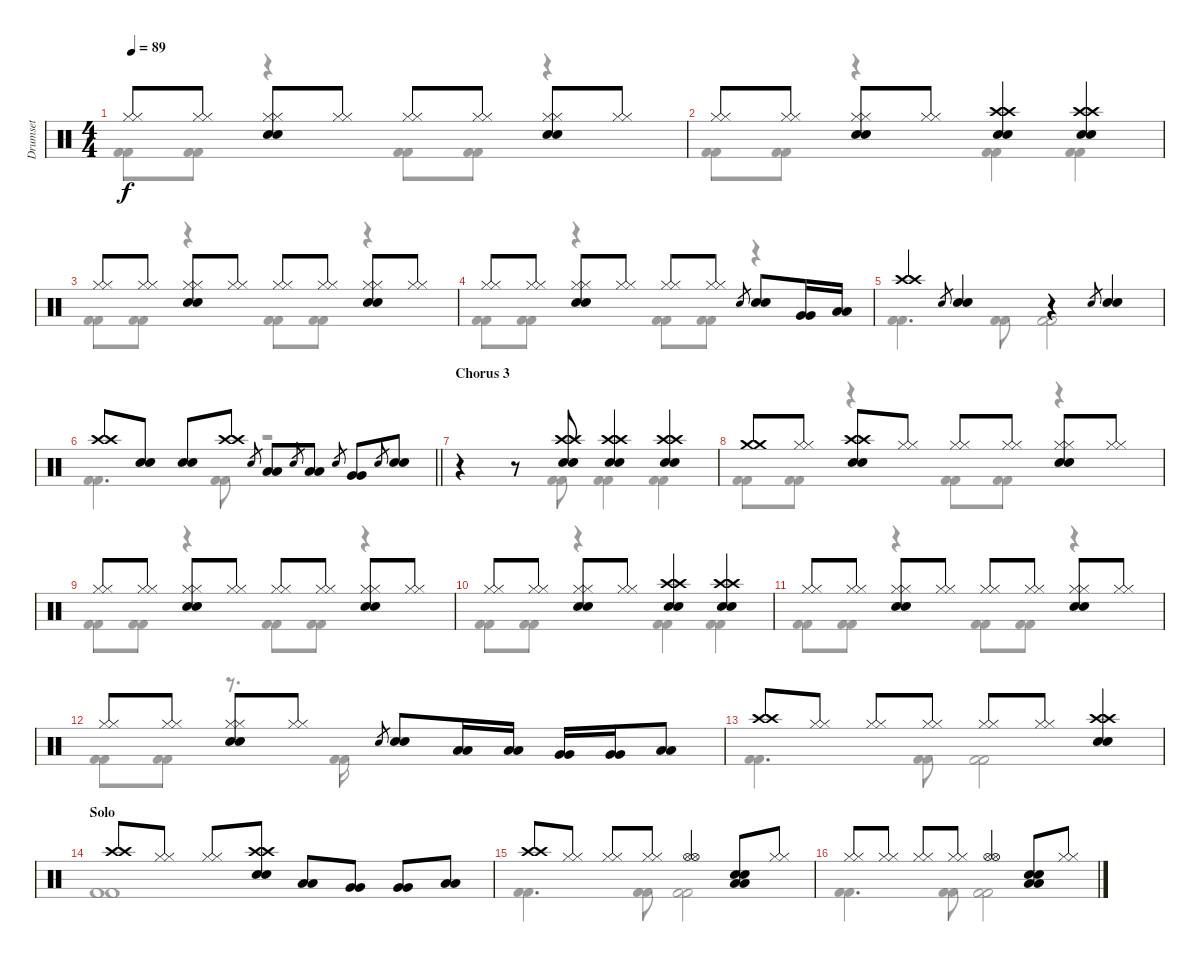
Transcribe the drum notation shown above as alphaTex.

\track ("Drumset" "Drumset") {instrument percussion}
\staff {score}
\articulation defaults
\voice
\ts (4 4)
\tempo 89
\clef neutral
\ks c
("Hi-Hat (closed)" "Hi-Hat (closed)").8{dy f} ("Hi-Hat (closed)" "Hi-Hat (closed)").8 ("Electric Snare (hit)" "Electric Snare (hit)" "Hi-Hat (closed)" "Hi-Hat (closed)").8 ("Hi-Hat (closed)" "Hi-Hat (closed)").8 ("Hi-Hat (closed)" "Hi-Hat (closed)").8 ("Hi-Hat (closed)" "Hi-Hat (closed)").8 ("Electric Snare (hit)" "Electric Snare (hit)" "Hi-Hat (closed)" "Hi-Hat (closed)").8 ("Hi-Hat (closed)" "Hi-Hat (closed)").8 |
("Hi-Hat (closed)" "Hi-Hat (closed)").8 ("Hi-Hat (closed)" "Hi-Hat (closed)").8 ("Electric Snare (hit)" "Electric Snare (hit)" "Hi-Hat (closed)" "Hi-Hat (closed)").8 ("Hi-Hat (closed)" "Hi-Hat (closed)").8 ("Electric Snare (hit)" "Electric Snare (hit)" "Crash high (hit)" "Crash high (hit)").4 ("Electric Snare (hit)" "Electric Snare (hit)" "Crash high (hit)" "Crash high (hit)").4 |
("Hi-Hat (closed)" "Hi-Hat (closed)").8 ("Hi-Hat (closed)" "Hi-Hat (closed)").8 ("Electric Snare (hit)" "Electric Snare (hit)" "Hi-Hat (closed)" "Hi-Hat (closed)").8 ("Hi-Hat (closed)" "Hi-Hat (closed)").8 ("Hi-Hat (closed)" "Hi-Hat (closed)").8 ("Hi-Hat (closed)" "Hi-Hat (closed)").8 ("Electric Snare (hit)" "Electric Snare (hit)" "Hi-Hat (closed)" "Hi-Hat (closed)").8 ("Hi-Hat (closed)" "Hi-Hat (closed)").8 |
("Hi-Hat (closed)" "Hi-Hat (closed)").8 ("Hi-Hat (closed)" "Hi-Hat (closed)").8 ("Electric Snare (hit)" "Electric Snare (hit)" "Hi-Hat (closed)" "Hi-Hat (closed)").8 ("Hi-Hat (closed)" "Hi-Hat (closed)").8 ("Hi-Hat (closed)" "Hi-Hat (closed)").8 ("Hi-Hat (closed)" "Hi-Hat (closed)").8 "Snare (hit)".8{gr} ("Electric Snare (hit)" "Electric Snare (hit)").8 ("Very Low Tom (hit)" "Very Low Tom (hit)").16 ("Low Tom (hit)" "Low Tom (hit)").16 |
("Crash high (hit)" "Crash high (hit)").4 "Snare (hit)".8{gr} ("Electric Snare (hit)" "Electric Snare (hit)").4 r.4 "Snare (hit)".8{gr} ("Electric Snare (hit)" "Electric Snare (hit)").4 |
\barLineRight lightlight
("Crash high (hit)" "Crash high (hit)").8 ("Electric Snare (hit)" "Electric Snare (hit)").8 ("Electric Snare (hit)" "Electric Snare (hit)").8 ("Crash high (hit)" "Crash high (hit)").8 "Snare (hit)".8{gr} ("Low Tom (hit)" "Low Tom (hit)").8 "Snare (hit)".8{gr} ("Low Tom (hit)" "Low Tom (hit)").8 "Snare (hit)".8{gr} ("Very Low Tom (hit)" "Very Low Tom (hit)").8 "Snare (hit)".8{gr} ("Electric Snare (hit)" "Electric Snare (hit)").8 |
\section ("" "Chorus 3")
r.4 r.8 ("Electric Snare (hit)" "Electric Snare (hit)" "Crash high (hit)" "Crash high (hit)").8 ("Electric Snare (hit)" "Electric Snare (hit)" "Crash high (hit)" "Crash high (hit)").4 ("Electric Snare (hit)" "Electric Snare (hit)" "Crash high (hit)" "Crash high (hit)").4 |
("Crash medium (hit)" "Crash medium (hit)").8 ("Hi-Hat (closed)" "Hi-Hat (closed)").8 ("Electric Snare (hit)" "Electric Snare (hit)" "Crash high (hit)" "Crash high (hit)").8 ("Hi-Hat (closed)" "Hi-Hat (closed)").8 ("Hi-Hat (closed)" "Hi-Hat (closed)").8 ("Hi-Hat (closed)" "Hi-Hat (closed)").8 ("Electric Snare (hit)" "Electric Snare (hit)" "Hi-Hat (closed)" "Hi-Hat (closed)").8 ("Hi-Hat (closed)" "Hi-Hat (closed)").8 |
("Hi-Hat (closed)" "Hi-Hat (closed)").8 ("Hi-Hat (closed)" "Hi-Hat (closed)").8 ("Electric Snare (hit)" "Electric Snare (hit)" "Hi-Hat (closed)" "Hi-Hat (closed)").8 ("Hi-Hat (closed)" "Hi-Hat (closed)").8 ("Hi-Hat (closed)" "Hi-Hat (closed)").8 ("Hi-Hat (closed)" "Hi-Hat (closed)").8 ("Electric Snare (hit)" "Electric Snare (hit)" "Hi-Hat (closed)" "Hi-Hat (closed)").8 ("Hi-Hat (closed)" "Hi-Hat (closed)").8 |
("Hi-Hat (closed)" "Hi-Hat (closed)").8 ("Hi-Hat (closed)" "Hi-Hat (closed)").8 ("Electric Snare (hit)" "Electric Snare (hit)" "Hi-Hat (closed)" "Hi-Hat (closed)").8 ("Hi-Hat (closed)" "Hi-Hat (closed)").8 ("Electric Snare (hit)" "Electric Snare (hit)" "Crash high (hit)" "Crash high (hit)").4 ("Electric Snare (hit)" "Electric Snare (hit)" "Crash high (hit)" "Crash high (hit)").4 |
("Hi-Hat (closed)" "Hi-Hat (closed)").8 ("Hi-Hat (closed)" "Hi-Hat (closed)").8 ("Electric Snare (hit)" "Electric Snare (hit)" "Hi-Hat (closed)" "Hi-Hat (closed)").8 ("Hi-Hat (closed)" "Hi-Hat (closed)").8 ("Hi-Hat (closed)" "Hi-Hat (closed)").8 ("Hi-Hat (closed)" "Hi-Hat (closed)").8 ("Electric Snare (hit)" "Electric Snare (hit)" "Hi-Hat (closed)" "Hi-Hat (closed)").8 ("Hi-Hat (closed)" "Hi-Hat (closed)").8 |
("Hi-Hat (closed)" "Hi-Hat (closed)").8 ("Hi-Hat (closed)" "Hi-Hat (closed)").8 ("Electric Snare (hit)" "Electric Snare (hit)" "Hi-Hat (closed)" "Hi-Hat (closed)").8 ("Hi-Hat (closed)" "Hi-Hat (closed)").8 "Snare (hit)".8{gr} ("Electric Snare (hit)" "Electric Snare (hit)").8 ("Low Tom (hit)" "Low Tom (hit)").16 ("Low Tom (hit)" "Low Tom (hit)").16 ("Very Low Tom (hit)" "Very Low Tom (hit)").16 ("Very Low Tom (hit)" "Very Low Tom (hit)").16 ("Low Floor Tom (hit)" "Low Floor Tom (hit)").8 |
("Crash high (hit)" "Crash high (hit)").8 ("Hi-Hat (closed)" "Hi-Hat (closed)").8 ("Hi-Hat (closed)" "Hi-Hat (closed)").8 ("Hi-Hat (closed)" "Hi-Hat (closed)").8 ("Hi-Hat (closed)" "Hi-Hat (closed)").8 ("Hi-Hat (closed)" "Hi-Hat (closed)").8 ("Electric Snare (hit)" "Electric Snare (hit)" "Crash high (hit)" "Crash high (hit)").4 |
\section ("" "Solo")
("Crash high (hit)" "Crash high (hit)").8 ("Hi-Hat (closed)" "Hi-Hat (closed)").8 ("Hi-Hat (closed)" "Hi-Hat (closed)").8 ("Electric Snare (hit)" "Electric Snare (hit)" "Crash high (hit)" "Crash high (hit)").8 ("Low Tom (hit)" "Low Tom (hit)").8 ("Very Low Tom (hit)" "Very Low Tom (hit)").8 ("Very Low Tom (hit)" "Very Low Tom (hit)").8 ("Low Floor Tom (hit)" "Low Floor Tom (hit)").8 |
("Crash high (hit)" "Crash high (hit)").8 ("Hi-Hat (closed)" "Hi-Hat (closed)").8 ("Hi-Hat (closed)" "Hi-Hat (closed)").8 ("Hi-Hat (closed)" "Hi-Hat (closed)").8 ("Hi-Hat (open)" "Hi-Hat (open)").4 ("Low Floor Tom (hit)" "Low Floor Tom (hit)" "Electric Snare (hit)" "Electric Snare (hit)").8 ("Hi-Hat (closed)" "Hi-Hat (closed)").8 |
("Hi-Hat (closed)" "Hi-Hat (closed)").8 ("Hi-Hat (closed)" "Hi-Hat (closed)").8 ("Hi-Hat (closed)" "Hi-Hat (closed)").8 ("Hi-Hat (closed)" "Hi-Hat (closed)").8 ("Hi-Hat (open)" "Hi-Hat (open)").4 ("Low Floor Tom (hit)" "Low Floor Tom (hit)" "Electric Snare (hit)" "Electric Snare (hit)").8 ("Hi-Hat (closed)" "Hi-Hat (closed)").8
\voice
\clef neutral
\ottava regular
\simile none
\ks c
("Kick (hit) 2" "Kick (hit) 2").8{dy f} ("Kick (hit) 2" "Kick (hit) 2").8 r.4 ("Kick (hit) 2" "Kick (hit) 2").8 ("Kick (hit) 2" "Kick (hit) 2").8 r.4 |
("Kick (hit) 2" "Kick (hit) 2").8 ("Kick (hit) 2" "Kick (hit) 2").8 r.4 ("Kick (hit) 2" "Kick (hit) 2").4 ("Kick (hit) 2" "Kick (hit) 2").4 |
("Kick (hit) 2" "Kick (hit) 2").8 ("Kick (hit) 2" "Kick (hit) 2").8 r.4 ("Kick (hit) 2" "Kick (hit) 2").8 ("Kick (hit) 2" "Kick (hit) 2").8 r.4 |
("Kick (hit) 2" "Kick (hit) 2").8 ("Kick (hit) 2" "Kick (hit) 2").8 r.4 ("Kick (hit) 2" "Kick (hit) 2").8 ("Kick (hit) 2" "Kick (hit) 2").8 r.4 |
("Kick (hit) 2" "Kick (hit) 2").4{d} ("Kick (hit) 2" "Kick (hit) 2").8 ("Kick (hit) 2" "Kick (hit) 2").2 |
\barLineRight lightlight
("Kick (hit) 2" "Kick (hit) 2").4{d} ("Kick (hit) 2" "Kick (hit) 2").8 r.2 |
r.4 r.8 ("Kick (hit) 2" "Kick (hit) 2").8 ("Kick (hit) 2" "Kick (hit) 2").4 ("Kick (hit) 2" "Kick (hit) 2").4 |
("Kick (hit) 2" "Kick (hit) 2").8 ("Kick (hit) 2" "Kick (hit) 2").8 r.4 ("Kick (hit) 2" "Kick (hit) 2").8 ("Kick (hit) 2" "Kick (hit) 2").8 r.4 |
("Kick (hit) 2" "Kick (hit) 2").8 ("Kick (hit) 2" "Kick (hit) 2").8 r.4 ("Kick (hit) 2" "Kick (hit) 2").8 ("Kick (hit) 2" "Kick (hit) 2").8 r.4 |
("Kick (hit) 2" "Kick (hit) 2").8 ("Kick (hit) 2" "Kick (hit) 2").8 r.4 ("Kick (hit) 2" "Kick (hit) 2").4 ("Kick (hit) 2" "Kick (hit) 2").4 |
("Kick (hit) 2" "Kick (hit) 2").8 ("Kick (hit) 2" "Kick (hit) 2").8 r.4 ("Kick (hit) 2" "Kick (hit) 2").8 ("Kick (hit) 2" "Kick (hit) 2").8 r.4 |
("Kick (hit) 2" "Kick (hit) 2").8 ("Kick (hit) 2" "Kick (hit) 2").8 r.8{d} ("Kick (hit) 2" "Kick (hit) 2").16 |
("Kick (hit) 2" "Kick (hit) 2").4{d} ("Kick (hit) 2" "Kick (hit) 2").8 ("Kick (hit) 2" "Kick (hit) 2").2 |
("Kick (hit) 2" "Kick (hit) 2").1 |
("Kick (hit) 2" "Kick (hit) 2").4{d} ("Kick (hit) 2" "Kick (hit) 2").8 ("Kick (hit) 2" "Kick (hit) 2").2 |
("Kick (hit) 2" "Kick (hit) 2").4{d} ("Kick (hit) 2" "Kick (hit) 2").8 ("Kick (hit) 2" "Kick (hit) 2").2
